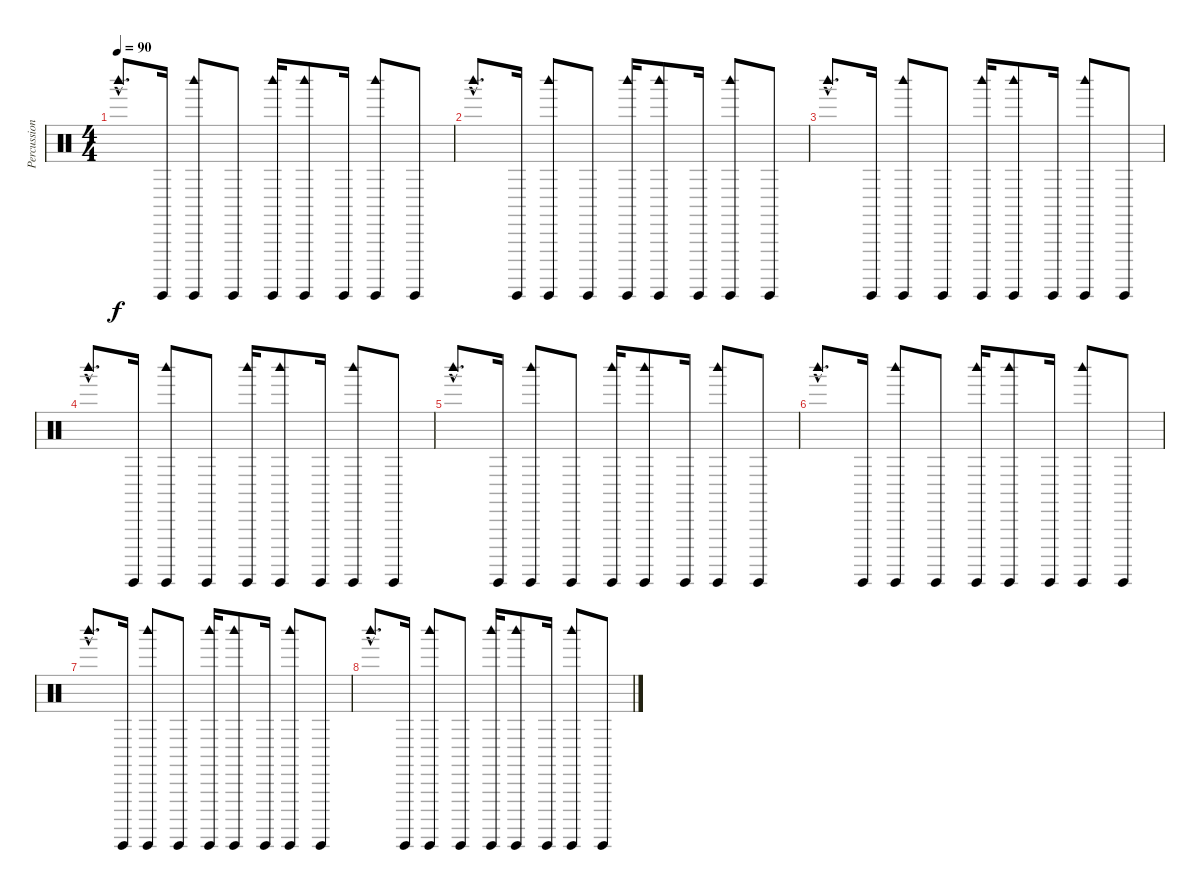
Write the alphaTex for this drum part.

\track ("Percussions" "Percussion") {instrument percussion}
\staff {score}
\articulation defaults
\ts (4 4)
\tempo 90
\clef neutral
\ks c "Woodblock high (hit)"{hac}.8{d dy f} "Guiro (hit)".16
("Guiro (hit)" "Woodblock high (hit)").8 "Guiro (hit)".8 ("Guiro (hit)" "Woodblock high (hit)").16 ("Guiro (hit)" "Woodblock high (hit)").8 "Guiro (hit)".16 ("Guiro (hit)" "Woodblock high (hit)").8 "Guiro (hit)".8 |
"Woodblock high (hit)"{hac}.8{d} "Guiro (hit)".16 ("Guiro (hit)" "Woodblock high (hit)").8 "Guiro (hit)".8 ("Guiro (hit)" "Woodblock high (hit)").16 ("Guiro (hit)" "Woodblock high (hit)").8 "Guiro (hit)".16 ("Guiro (hit)" "Woodblock high (hit)").8 "Guiro (hit)".8 |
"Woodblock high (hit)"{hac}.8{d} "Guiro (hit)".16 ("Guiro (hit)" "Woodblock high (hit)").8 "Guiro (hit)".8 ("Guiro (hit)" "Woodblock high (hit)").16 ("Guiro (hit)" "Woodblock high (hit)").8 "Guiro (hit)".16 ("Guiro (hit)" "Woodblock high (hit)").8 "Guiro (hit)".8 |
"Woodblock high (hit)"{hac}.8{d} "Guiro (hit)".16 ("Guiro (hit)" "Woodblock high (hit)").8 "Guiro (hit)".8 ("Guiro (hit)" "Woodblock high (hit)").16 ("Guiro (hit)" "Woodblock high (hit)").8 "Guiro (hit)".16 ("Guiro (hit)" "Woodblock high (hit)").8 "Guiro (hit)".8 |
"Woodblock high (hit)"{hac}.8{d} "Guiro (hit)".16 ("Guiro (hit)" "Woodblock high (hit)").8 "Guiro (hit)".8 ("Guiro (hit)" "Woodblock high (hit)").16 ("Guiro (hit)" "Woodblock high (hit)").8 "Guiro (hit)".16 ("Guiro (hit)" "Woodblock high (hit)").8 "Guiro (hit)".8 |
"Woodblock high (hit)"{hac}.8{d} "Guiro (hit)".16 ("Guiro (hit)" "Woodblock high (hit)").8 "Guiro (hit)".8 ("Guiro (hit)" "Woodblock high (hit)").16 ("Guiro (hit)" "Woodblock high (hit)").8 "Guiro (hit)".16 ("Guiro (hit)" "Woodblock high (hit)").8 "Guiro (hit)".8 |
"Woodblock high (hit)"{hac}.8{d} "Guiro (hit)".16 ("Guiro (hit)" "Woodblock high (hit)").8 "Guiro (hit)".8 ("Guiro (hit)" "Woodblock high (hit)").16 ("Guiro (hit)" "Woodblock high (hit)").8 "Guiro (hit)".16 ("Guiro (hit)" "Woodblock high (hit)").8 "Guiro (hit)".8 |
"Woodblock high (hit)"{hac}.8{d} "Guiro (hit)".16 ("Guiro (hit)" "Woodblock high (hit)").8 "Guiro (hit)".8 ("Guiro (hit)" "Woodblock high (hit)").16 ("Guiro (hit)" "Woodblock high (hit)").8 "Guiro (hit)".16 ("Guiro (hit)" "Woodblock high (hit)").8 "Guiro (hit)".8
